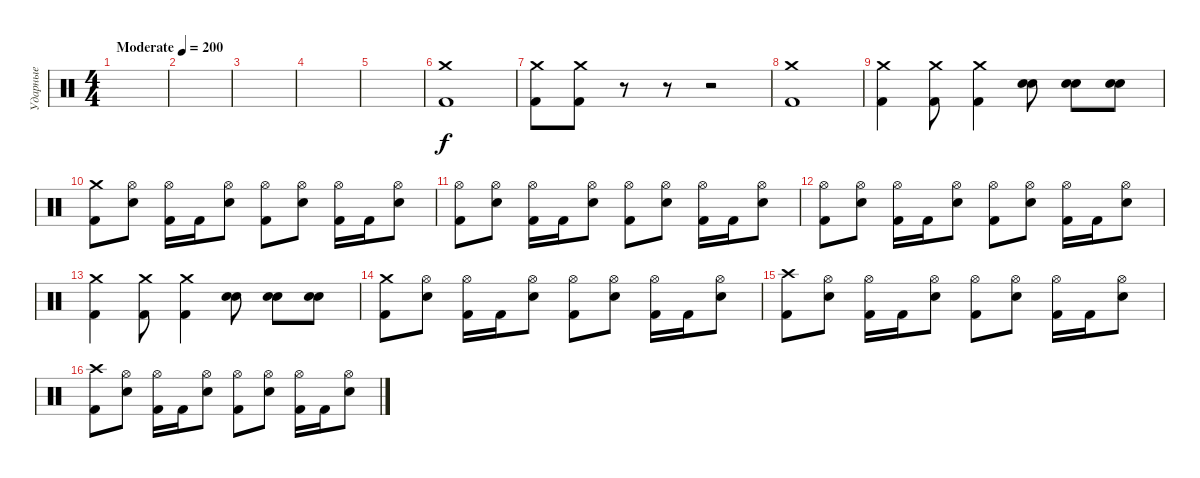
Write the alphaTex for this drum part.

\track ("Ударные" "Ударные") {instrument percussion}
\staff {score}
\articulation defaults
\ts (4 4)
\tempo (200 "Moderate")
\clef neutral
\ks c
|
|
|
|
|
("Crash medium (hit)" "Kick (hit) 2").1 |
("Crash medium (hit)" "Kick (hit) 2").8 ("Crash medium (hit)" "Kick (hit) 2").8 r.8 r.8 r.2 |
("Crash medium (hit)" "Kick (hit) 2").1 |
("Crash medium (hit)" "Kick (hit) 2").4 ("Crash medium (hit)" "Kick (hit) 2").8 ("Crash medium (hit)" "Kick (hit) 2").4 ("Electric Snare (hit)" "Electric Snare (hit)").8 ("Electric Snare (hit)" "Electric Snare (hit)").8 ("Electric Snare (hit)" "Electric Snare (hit)").8 |
("Crash medium (hit)" "Kick (hit) 2").8 ("Hi-Hat (open)" "Electric Snare (hit)").8 ("Hi-Hat (open)" "Kick (hit) 2").16 "Kick (hit) 2".16 ("Hi-Hat (open)" "Electric Snare (hit)").8 ("Hi-Hat (open)" "Kick (hit) 2").8 ("Hi-Hat (open)" "Electric Snare (hit)").8 ("Hi-Hat (open)" "Kick (hit) 2").16 "Kick (hit) 2".16 ("Hi-Hat (open)" "Electric Snare (hit)").8 |
("Hi-Hat (open)" "Kick (hit) 2").8 ("Hi-Hat (open)" "Electric Snare (hit)").8 ("Hi-Hat (open)" "Kick (hit) 2").16 "Kick (hit) 2".16 ("Hi-Hat (open)" "Electric Snare (hit)").8 ("Hi-Hat (open)" "Kick (hit) 2").8 ("Hi-Hat (open)" "Electric Snare (hit)").8 ("Hi-Hat (open)" "Kick (hit) 2").16 "Kick (hit) 2".16 ("Hi-Hat (open)" "Electric Snare (hit)").8 |
("Hi-Hat (open)" "Kick (hit) 2").8 ("Hi-Hat (open)" "Electric Snare (hit)").8 ("Hi-Hat (open)" "Kick (hit) 2").16 "Kick (hit) 2".16 ("Hi-Hat (open)" "Electric Snare (hit)").8 ("Hi-Hat (open)" "Kick (hit) 2").8 ("Hi-Hat (open)" "Electric Snare (hit)").8 ("Hi-Hat (open)" "Kick (hit) 2").16 "Kick (hit) 2".16 ("Hi-Hat (open)" "Electric Snare (hit)").8 |
("Crash medium (hit)" "Kick (hit) 2").4 ("Crash medium (hit)" "Kick (hit) 2").8 ("Crash medium (hit)" "Kick (hit) 2").4 ("Electric Snare (hit)" "Electric Snare (hit)").8 ("Electric Snare (hit)" "Electric Snare (hit)").8 ("Electric Snare (hit)" "Electric Snare (hit)").8 |
("Crash medium (hit)" "Kick (hit) 2").8 ("Hi-Hat (open)" "Electric Snare (hit)").8 ("Hi-Hat (open)" "Kick (hit) 2").16 "Kick (hit) 2".16 ("Hi-Hat (open)" "Electric Snare (hit)").8 ("Hi-Hat (open)" "Kick (hit) 2").8 ("Hi-Hat (open)" "Electric Snare (hit)").8 ("Hi-Hat (open)" "Kick (hit) 2").16 "Kick (hit) 2".16 ("Hi-Hat (open)" "Electric Snare (hit)").8 |
("Crash high (hit)" "Kick (hit) 2").8 ("Hi-Hat (open)" "Electric Snare (hit)").8 ("Hi-Hat (open)" "Kick (hit) 2").16 "Kick (hit) 2".16 ("Hi-Hat (open)" "Electric Snare (hit)").8 ("Hi-Hat (open)" "Kick (hit) 2").8 ("Hi-Hat (open)" "Electric Snare (hit)").8 ("Hi-Hat (open)" "Kick (hit) 2").16 "Kick (hit) 2".16 ("Hi-Hat (open)" "Electric Snare (hit)").8 |
("Crash high (hit)" "Kick (hit) 2").8 ("Hi-Hat (open)" "Electric Snare (hit)").8 ("Hi-Hat (open)" "Kick (hit) 2").16 "Kick (hit) 2".16 ("Hi-Hat (open)" "Electric Snare (hit)").8 ("Hi-Hat (open)" "Kick (hit) 2").8 ("Hi-Hat (open)" "Electric Snare (hit)").8 ("Hi-Hat (open)" "Kick (hit) 2").16 "Kick (hit) 2".16 ("Hi-Hat (open)" "Electric Snare (hit)").8
